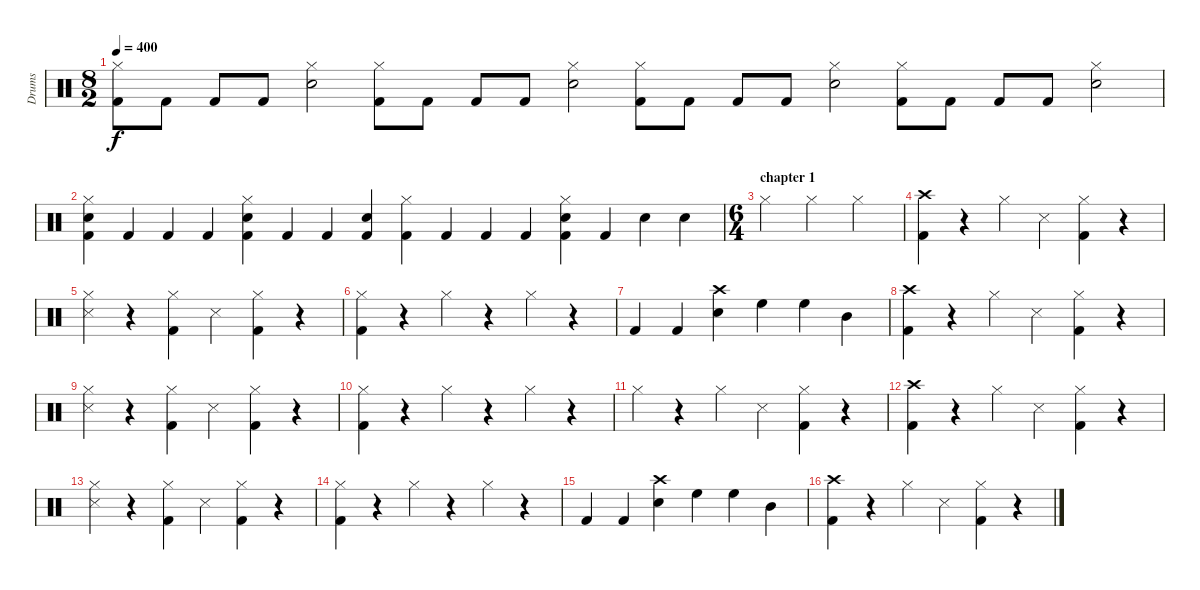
\track ("Drums" "Drums") {instrument percussion}
\staff {score}
\articulation defaults
\ts (8 2)
\tempo 400
\clef neutral
\ks c
("Hi-Hat (closed)" "Kick (hit) 2").8{dy f} "Kick (hit) 2".8 "Kick (hit) 2".8 "Kick (hit) 2".8 ("Hi-Hat (closed)" "Snare (hit) 2").2 ("Hi-Hat (closed)" "Kick (hit) 2").8 "Kick (hit) 2".8 "Kick (hit) 2".8 "Kick (hit) 2".8 ("Hi-Hat (closed)" "Snare (hit) 2").2 ("Hi-Hat (closed)" "Kick (hit) 2").8 "Kick (hit) 2".8 "Kick (hit) 2".8 "Kick (hit) 2".8 ("Hi-Hat (closed)" "Snare (hit) 2").2 ("Hi-Hat (closed)" "Kick (hit) 2").8 "Kick (hit) 2".8 "Kick (hit) 2".8 "Kick (hit) 2".8 ("Hi-Hat (closed)" "Snare (hit) 2").2 |
("Hi-Hat (closed)" "Snare (hit) 2" "Kick (hit) 2").4 "Kick (hit) 2".4 "Kick (hit) 2".4 "Kick (hit) 2".4 ("Hi-Hat (closed)" "Snare (hit) 2" "Kick (hit) 2").4 "Kick (hit) 2".4 "Kick (hit) 2".4 ("Snare (hit) 2" "Kick (hit) 2").4 ("Hi-Hat (closed)" "Kick (hit) 2").4 "Kick (hit) 2".4 "Kick (hit) 2".4 "Kick (hit) 2".4 ("Hi-Hat (closed)" "Snare (hit) 2" "Kick (hit) 2").4 "Kick (hit) 2".4 "Snare (hit) 2".4 "Snare (hit) 2".4 |
\ts (6 4)
\section ("" "chapter 1")
"Hi-Hat (closed)".2 "Hi-Hat (closed)".2 "Hi-Hat (closed)".2 |
("Crash high (hit)" "Kick (hit) 2").4 r.4 "Hi-Hat (closed)".4 "Snare (side stick) 3".4 ("Hi-Hat (closed)" "Kick (hit) 2").4 r.4 |
("Hi-Hat (closed)" "Snare (side stick) 3").4 r.4 ("Hi-Hat (closed)" "Kick (hit) 2").4 "Snare (side stick) 3".4 ("Hi-Hat (closed)" "Kick (hit) 2").4 r.4 |
("Hi-Hat (closed)" "Kick (hit) 2").4 r.4 "Hi-Hat (closed)".4 r.4 "Hi-Hat (closed)".4 r.4 |
"Kick (hit) 2".4 "Kick (hit) 2".4 ("Crash high (hit)" "Snare (hit) 2").4 "High Floor Tom (hit)".4 "High Floor Tom (hit)".4 "Mid Tom (hit)".4 |
("Crash high (hit)" "Kick (hit) 2").4 r.4 "Hi-Hat (closed)".4 "Snare (side stick) 3".4 ("Hi-Hat (closed)" "Kick (hit) 2").4 r.4 |
("Hi-Hat (closed)" "Snare (side stick) 3").4 r.4 ("Hi-Hat (closed)" "Kick (hit) 2").4 "Snare (side stick) 3".4 ("Hi-Hat (closed)" "Kick (hit) 2").4 r.4 |
("Hi-Hat (closed)" "Kick (hit) 2").4 r.4 "Hi-Hat (closed)".4 r.4 "Hi-Hat (closed)".4 r.4 |
"Hi-Hat (closed)".4 r.4 "Hi-Hat (closed)".4 "Snare (side stick) 3".4 ("Hi-Hat (closed)" "Kick (hit) 2").4 r.4 |
("Crash high (hit)" "Kick (hit) 2").4 r.4 "Hi-Hat (closed)".4 "Snare (side stick) 3".4 ("Hi-Hat (closed)" "Kick (hit) 2").4 r.4 |
("Hi-Hat (closed)" "Snare (side stick) 3").4 r.4 ("Hi-Hat (closed)" "Kick (hit) 2").4 "Snare (side stick) 3".4 ("Hi-Hat (closed)" "Kick (hit) 2").4 r.4 |
("Hi-Hat (closed)" "Kick (hit) 2").4 r.4 "Hi-Hat (closed)".4 r.4 "Hi-Hat (closed)".4 r.4 |
"Kick (hit) 2".4 "Kick (hit) 2".4 ("Crash high (hit)" "Snare (hit) 2").4 "High Floor Tom (hit)".4 "High Floor Tom (hit)".4 "Mid Tom (hit)".4 |
("Crash high (hit)" "Kick (hit) 2").4 r.4 "Hi-Hat (closed)".4 "Snare (side stick) 3".4 ("Hi-Hat (closed)" "Kick (hit) 2").4 r.4
